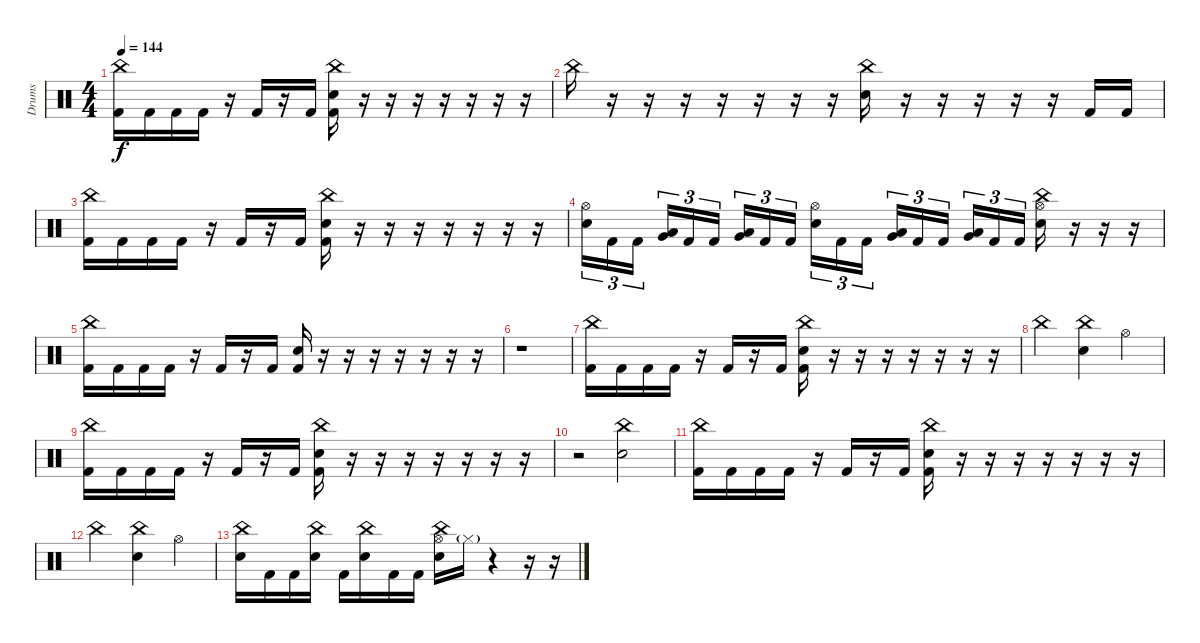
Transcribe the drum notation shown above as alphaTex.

\track ("Drums" "Drums") {instrument percussion}
\staff {score}
\articulation defaults
\ts (4 4)
\tempo 144
\clef neutral
\ks c
("China (hit)" "Kick (hit) 2").16{dy f} "Kick (hit) 2".16 "Kick (hit) 2".16 "Kick (hit) 2".16 r.16 "Kick (hit) 2".16 r.16 "Kick (hit) 2".16 ("China (hit)" "Electric Snare (hit)" "Kick (hit) 2").16 r.16 r.16 r.16 r.16 r.16 r.16 r.16 |
"China (hit)".16 r.16 r.16 r.16 r.16 r.16 r.16 r.16 ("China (hit)" "Electric Snare (hit)").16 r.16 r.16 r.16 r.16 r.16 "Kick (hit) 2".16 "Kick (hit) 2".16 |
("China (hit)" "Kick (hit) 2").16 "Kick (hit) 2".16 "Kick (hit) 2".16 "Kick (hit) 2".16 r.16 "Kick (hit) 2".16 r.16 "Kick (hit) 2".16 ("China (hit)" "Electric Snare (hit)" "Kick (hit) 2").16 r.16 r.16 r.16 r.16 r.16 r.16 r.16 |
("Hi-Hat (open)" "Electric Snare (hit)").16{tu (3 2)} "Kick (hit) 2".16{tu (3 2)} "Kick (hit) 2".16{tu (3 2)} ("Low Tom (hit)" "Very Low Tom (hit)").16{tu (3 2)} "Kick (hit) 2".16{tu (3 2)} "Kick (hit) 2".16{tu (3 2)} ("Very Low Tom (hit)" "Low Floor Tom (hit)").16{tu (3 2)} "Kick (hit) 2".16{tu (3 2)} "Kick (hit) 2".16{tu (3 2)} ("Hi-Hat (open)" "Electric Snare (hit)").16{tu (3 2)} "Kick (hit) 2".16{tu (3 2)} "Kick (hit) 2".16{tu (3 2)} ("Low Tom (hit)" "Very Low Tom (hit)").16{tu (3 2)} "Kick (hit) 2".16{tu (3 2)} "Kick (hit) 2".16{tu (3 2)} ("Very Low Tom (hit)" "Low Floor Tom (hit)").16{tu (3 2)} "Kick (hit) 2".16{tu (3 2)} "Kick (hit) 2".16{tu (3 2)} ("China (hit)" "Hi-Hat (open)" "Electric Snare (hit)").16 r.16 r.16 r.16 |
("China (hit)" "Kick (hit) 2").16 "Kick (hit) 2".16 "Kick (hit) 2".16 "Kick (hit) 2".16 r.16 "Kick (hit) 2".16 r.16 "Kick (hit) 2".16 ("Electric Snare (hit)" "Kick (hit) 2").16 r.16 r.16 r.16 r.16 r.16 r.16 r.16 |
r.1 |
("China (hit)" "Kick (hit) 2").16 "Kick (hit) 2".16 "Kick (hit) 2".16 "Kick (hit) 2".16 r.16 "Kick (hit) 2".16 r.16 "Kick (hit) 2".16 ("China (hit)" "Electric Snare (hit)" "Kick (hit) 2").16 r.16 r.16 r.16 r.16 r.16 r.16 r.16 |
"China (hit)".2 ("China (hit)" "Electric Snare (hit)").4 "Hi-Hat (open)".4 |
("China (hit)" "Kick (hit) 2").16 "Kick (hit) 2".16 "Kick (hit) 2".16 "Kick (hit) 2".16 r.16 "Kick (hit) 2".16 r.16 "Kick (hit) 2".16 ("China (hit)" "Electric Snare (hit)" "Kick (hit) 2").16 r.16 r.16 r.16 r.16 r.16 r.16 r.16 |
r.2 ("China (hit)" "Electric Snare (hit)").2 |
("China (hit)" "Kick (hit) 2").16 "Kick (hit) 2".16 "Kick (hit) 2".16 "Kick (hit) 2".16 r.16 "Kick (hit) 2".16 r.16 "Kick (hit) 2".16 ("China (hit)" "Electric Snare (hit)" "Kick (hit) 2").16 r.16 r.16 r.16 r.16 r.16 r.16 r.16 |
"China (hit)".2 ("China (hit)" "Electric Snare (hit)").4 "Hi-Hat (open)".4 |
("China (hit)" "Electric Snare (hit)").16 "Kick (hit) 2".16 "Kick (hit) 2".16 ("China (hit)" "Electric Snare (hit)").16 "Kick (hit) 2".16 ("China (hit)" "Electric Snare (hit)").16 "Kick (hit) 2".16 "Kick (hit) 2".16 ("China (hit)" "Hi-Hat (open)" "Electric Snare (hit)").16 "Hi-Hat (closed)"{g}.16 r.4 r.16 r.16
